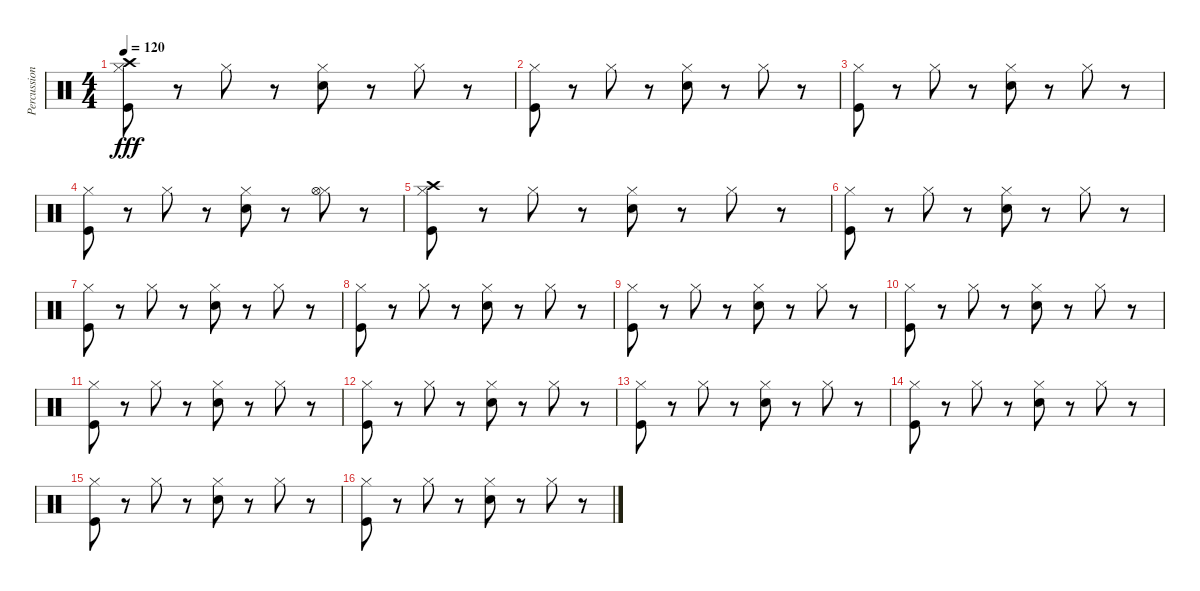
\track ("Percussion" "Percussion") {instrument percussion}
\staff {score}
\articulation defaults
\ts (4 4)
\tempo 120
\clef neutral
\ks c
("Hi-Hat (closed)" "Crash high (hit)" "Kick (hit)").8{dy fff} r.8 "Hi-Hat (closed)".8 r.8 ("Hi-Hat (closed)" "Snare (hit) 2").8 r.8 "Hi-Hat (closed)".8 r.8 |
("Hi-Hat (closed)" "Kick (hit)").8 r.8 "Hi-Hat (closed)".8 r.8 ("Hi-Hat (closed)" "Snare (hit) 2").8 r.8 "Hi-Hat (closed)".8 r.8 |
("Hi-Hat (closed)" "Kick (hit)").8 r.8 "Hi-Hat (closed)".8 r.8 ("Hi-Hat (closed)" "Snare (hit) 2").8 r.8 "Hi-Hat (closed)".8 r.8 |
("Hi-Hat (closed)" "Kick (hit)").8 r.8 "Hi-Hat (closed)".8 r.8 ("Hi-Hat (closed)" "Snare (hit) 2").8 r.8 ("Hi-Hat (closed)" "Hi-Hat (open)").8 r.8 |
("Hi-Hat (closed)" "Crash high (hit)" "Kick (hit)").8 r.8 "Hi-Hat (closed)".8 r.8 ("Hi-Hat (closed)" "Snare (hit) 2").8 r.8 "Hi-Hat (closed)".8 r.8 |
("Hi-Hat (closed)" "Kick (hit)").8 r.8 "Hi-Hat (closed)".8 r.8 ("Hi-Hat (closed)" "Snare (hit) 2").8 r.8 "Hi-Hat (closed)".8 r.8 |
("Hi-Hat (closed)" "Kick (hit)").8 r.8 "Hi-Hat (closed)".8 r.8 ("Hi-Hat (closed)" "Snare (hit) 2").8 r.8 "Hi-Hat (closed)".8 r.8 |
("Hi-Hat (closed)" "Kick (hit)").8 r.8 "Hi-Hat (closed)".8 r.8 ("Hi-Hat (closed)" "Snare (hit) 2").8 r.8 "Hi-Hat (closed)".8 r.8 |
("Hi-Hat (closed)" "Kick (hit)").8 r.8 "Hi-Hat (closed)".8 r.8 ("Hi-Hat (closed)" "Snare (hit) 2").8 r.8 "Hi-Hat (closed)".8 r.8 |
("Hi-Hat (closed)" "Kick (hit)").8 r.8 "Hi-Hat (closed)".8 r.8 ("Hi-Hat (closed)" "Snare (hit) 2").8 r.8 "Hi-Hat (closed)".8 r.8 |
("Hi-Hat (closed)" "Kick (hit)").8 r.8 "Hi-Hat (closed)".8 r.8 ("Hi-Hat (closed)" "Snare (hit) 2").8 r.8 "Hi-Hat (closed)".8 r.8 |
("Hi-Hat (closed)" "Kick (hit)").8 r.8 "Hi-Hat (closed)".8 r.8 ("Hi-Hat (closed)" "Snare (hit) 2").8 r.8 "Hi-Hat (closed)".8 r.8 |
("Hi-Hat (closed)" "Kick (hit)").8 r.8 "Hi-Hat (closed)".8 r.8 ("Hi-Hat (closed)" "Snare (hit) 2").8 r.8 "Hi-Hat (closed)".8 r.8 |
("Hi-Hat (closed)" "Kick (hit)").8 r.8 "Hi-Hat (closed)".8 r.8 ("Hi-Hat (closed)" "Snare (hit) 2").8 r.8 "Hi-Hat (closed)".8 r.8 |
("Hi-Hat (closed)" "Kick (hit)").8 r.8 "Hi-Hat (closed)".8 r.8 ("Hi-Hat (closed)" "Snare (hit) 2").8 r.8 "Hi-Hat (closed)".8 r.8 |
("Hi-Hat (closed)" "Kick (hit)").8 r.8 "Hi-Hat (closed)".8 r.8 ("Hi-Hat (closed)" "Snare (hit) 2").8 r.8 "Hi-Hat (closed)".8 r.8
